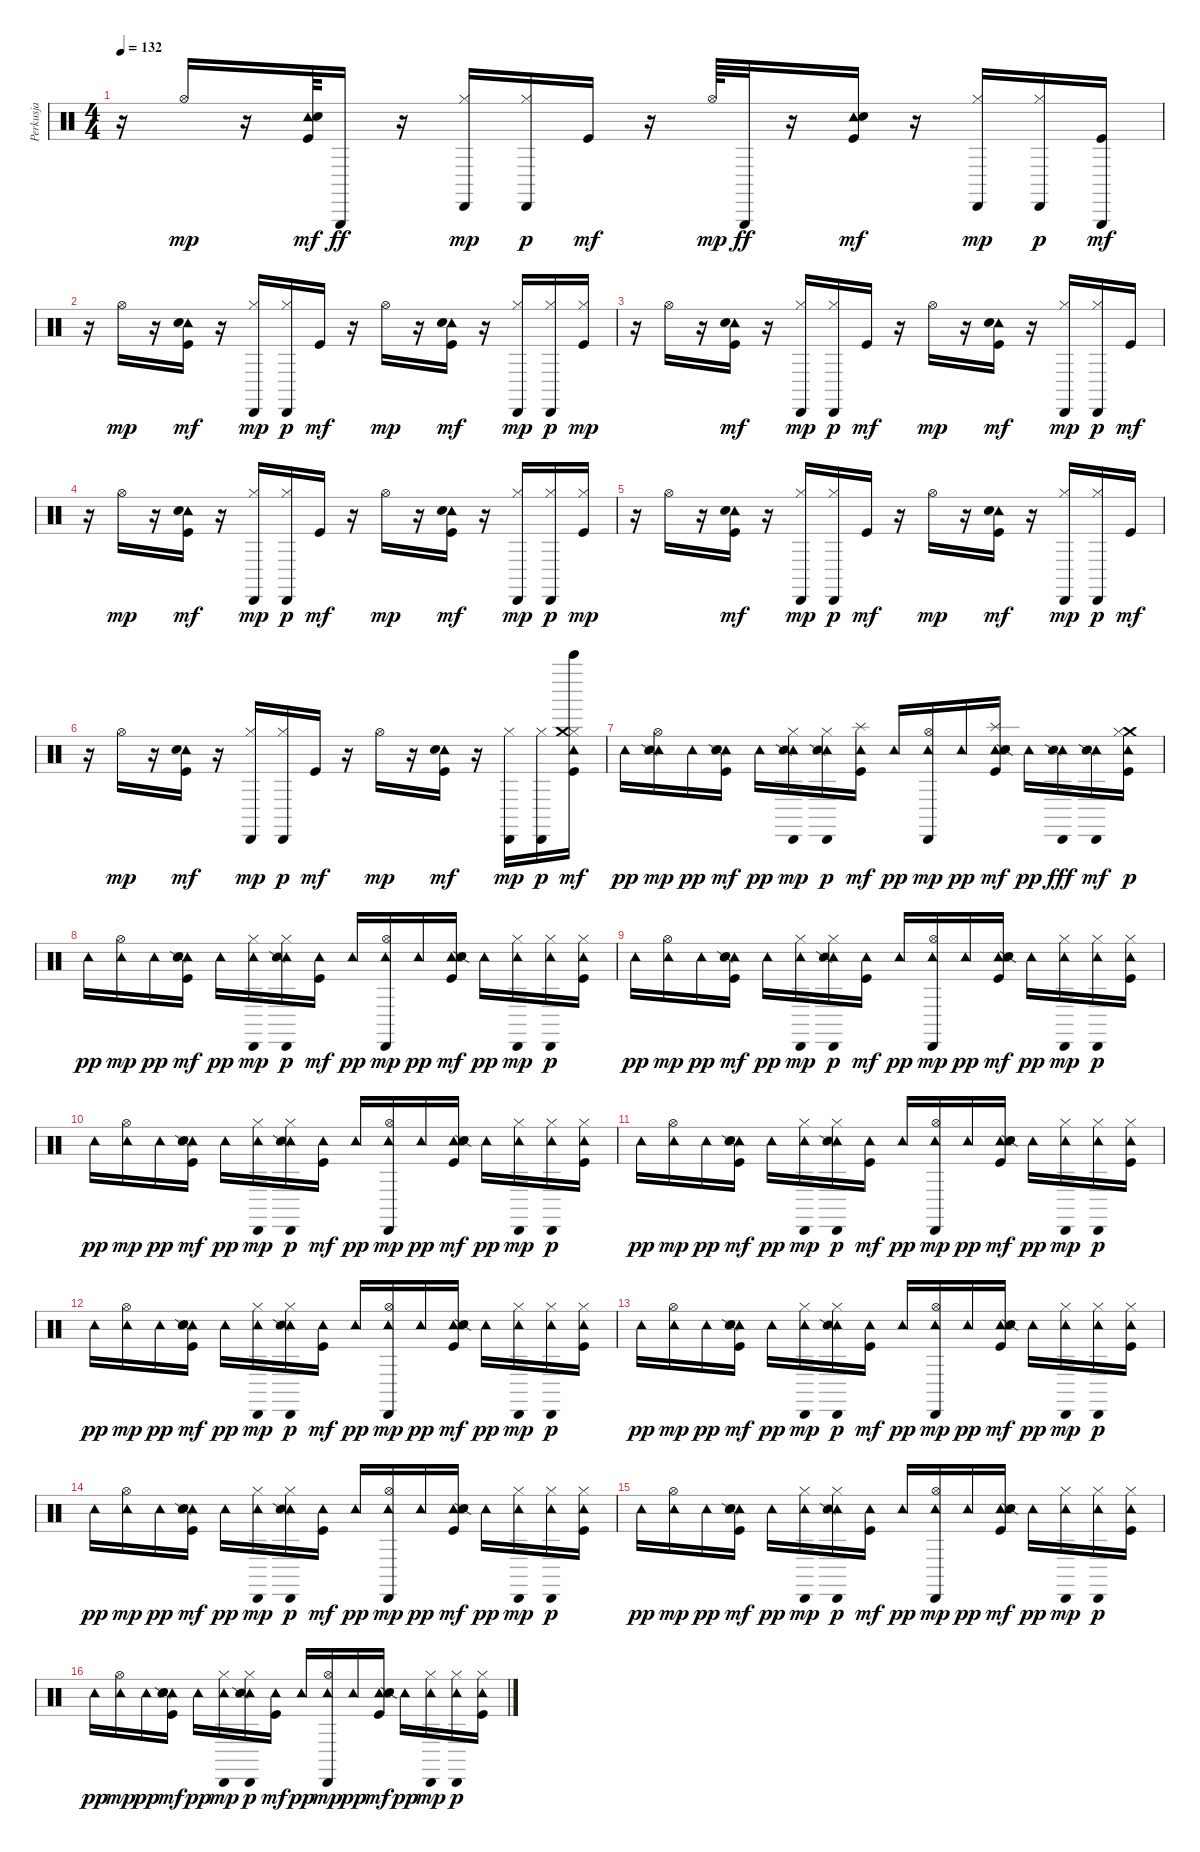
\track ("Perkusja" "Perkusja") {instrument percussion}
\staff {score}
\articulation defaults
\ts (4 4)
\tempo 132
\clef neutral
\ks c
r.16{dy mp} "Hi-Hat (open)".16 r.16 ("Tambourine (hit)" "Snare (hit) 2" "Kick (hit)").64{dy mf} "Triangle (hit)".16{dy ff} r.16 ("Cabasa (hit)" "Hi-Hat (closed)").16{dy mp} ("Cabasa (hit)" "Hi-Hat (closed)").16{dy p} "Kick (hit)".16{dy mf} r.16 "Hi-Hat (open)".64{dy mp} "Triangle (hit)".32{dy ff} r.16 ("Tambourine (hit)" "Snare (hit) 2" "Kick (hit)").16{dy mf} r.16 ("Cabasa (hit)" "Hi-Hat (closed)").16{dy mp} ("Cabasa (hit)" "Hi-Hat (closed)").16{dy p} ("Triangle (hit)" "Kick (hit)").16{dy mf} |
r.16 "Hi-Hat (open)".16{dy mp} r.16 ("Tambourine (hit)" "Snare (hit) 2" "Kick (hit)").16{dy mf} r.16 ("Cabasa (hit)" "Hi-Hat (closed)").16{dy mp} ("Cabasa (hit)" "Hi-Hat (closed)").16{dy p} "Kick (hit)".16{dy mf} r.16 "Hi-Hat (open)".16{dy mp} r.16 ("Tambourine (hit)" "Snare (hit) 2" "Kick (hit)").16{dy mf} r.16 ("Cabasa (hit)" "Hi-Hat (closed)").16{dy mp} ("Cabasa (hit)" "Hi-Hat (closed)").16{dy p} ("Kick (hit)" "Hi-Hat (closed)").16{dy mp} |
r.16 "Hi-Hat (open)".16 r.16 ("Tambourine (hit)" "Snare (hit) 2" "Kick (hit)").16{dy mf} r.16 ("Cabasa (hit)" "Hi-Hat (closed)").16{dy mp} ("Cabasa (hit)" "Hi-Hat (closed)").16{dy p} "Kick (hit)".16{dy mf} r.16 "Hi-Hat (open)".16{dy mp} r.16 ("Tambourine (hit)" "Snare (hit) 2" "Kick (hit)").16{dy mf} r.16 ("Cabasa (hit)" "Hi-Hat (closed)").16{dy mp} ("Cabasa (hit)" "Hi-Hat (closed)").16{dy p} "Kick (hit)".16{dy mf} |
r.16 "Hi-Hat (open)".16{dy mp} r.16 ("Tambourine (hit)" "Snare (hit) 2" "Kick (hit)").16{dy mf} r.16 ("Cabasa (hit)" "Hi-Hat (closed)").16{dy mp} ("Cabasa (hit)" "Hi-Hat (closed)").16{dy p} "Kick (hit)".16{dy mf} r.16 "Hi-Hat (open)".16{dy mp} r.16 ("Tambourine (hit)" "Snare (hit) 2" "Kick (hit)").16{dy mf} r.16 ("Cabasa (hit)" "Hi-Hat (closed)").16{dy mp} ("Cabasa (hit)" "Hi-Hat (closed)").16{dy p} ("Kick (hit)" "Hi-Hat (closed)").16{dy mp} |
r.16 "Hi-Hat (open)".16 r.16 ("Tambourine (hit)" "Snare (hit) 2" "Kick (hit)").16{dy mf} r.16 ("Cabasa (hit)" "Hi-Hat (closed)").16{dy mp} ("Cabasa (hit)" "Hi-Hat (closed)").16{dy p} "Kick (hit)".16{dy mf} r.16 "Hi-Hat (open)".16{dy mp} r.16 ("Tambourine (hit)" "Snare (hit) 2" "Kick (hit)").16{dy mf} r.16 ("Cabasa (hit)" "Hi-Hat (closed)").16{dy mp} ("Cabasa (hit)" "Hi-Hat (closed)").16{dy p} "Kick (hit)".16{dy mf} |
r.16 "Hi-Hat (open)".16{dy mp} r.16 ("Tambourine (hit)" "Snare (hit) 2" "Kick (hit)").16{dy mf} r.16 ("Cabasa (hit)" "Hi-Hat (closed)").16{dy mp} ("Cabasa (hit)" "Hi-Hat (closed)").16{dy p} "Kick (hit)".16{dy mf} r.16 "Hi-Hat (open)".16{dy mp} r.16 ("Tambourine (hit)" "Snare (hit) 2" "Kick (hit)").16{dy mf} r.16 ("Cabasa (hit)" "Hi-Hat (closed)").16{dy mp} ("Cabasa (hit)" "Hi-Hat (closed)").16{dy p} ("Tambourine (hit)" "Kick (hit)" "Hi-Hat (closed)" "Crash medium (hit)" "Bell Tree (hit)").16{dy mf} |
"Tambourine (hit)".16{dy pp} ("Tambourine (hit)" "Snare (side stick) 2" "Hi-Hat (open)").16{dy mp} "Tambourine (hit)".16{dy pp} ("Tambourine (hit)" "Snare (hit) 2" "Snare (side stick) 2" "Kick (hit)").16{dy mf} "Tambourine (hit)".16{dy pp} ("Tambourine (hit)" "Snare (side stick) 2" "Cabasa (hit)" "Hi-Hat (closed)").16{dy mp} ("Tambourine (hit)" "Snare (side stick) 2" "Cabasa (hit)" "Hi-Hat (closed)").16{dy p} ("Tambourine (hit)" "Kick (hit)" "Splash (hit)").16{dy mf} "Tambourine (hit)".16{dy pp} ("Tambourine (hit)" "Cabasa (hit)" "Hi-Hat (open)").16{dy mp} "Tambourine (hit)".16{dy pp} ("Tambourine (hit)" "Snare (hit) 2" "Snare (side stick) 2" "Kick (hit)" "Splash (hit)").16{dy mf} "Tambourine (hit)".16{dy pp} ("Tambourine (hit)" "Snare (side stick) 2" "Cabasa (hit)").16{dy fff} ("Tambourine (hit)" "Snare (side stick) 2" "Cabasa (hit)").16{dy mf} ("Crash medium (hit)" "Tambourine (hit)" "Kick (hit)" "Hi-Hat (closed)").16{dy p} |
"Tambourine (hit)".16{dy pp} ("Tambourine (hit)" "Hi-Hat (open)").16{dy mp} "Tambourine (hit)".16{dy pp} ("Tambourine (hit)" "Snare (hit) 2" "Snare (side stick) 2" "Kick (hit)").16{dy mf} "Tambourine (hit)".16{dy pp} ("Tambourine (hit)" "Cabasa (hit)" "Hi-Hat (closed)").16{dy mp} ("Tambourine (hit)" "Snare (side stick) 2" "Cabasa (hit)" "Hi-Hat (closed)").16{dy p} ("Tambourine (hit)" "Kick (hit)").16{dy mf} "Tambourine (hit)".16{dy pp} ("Tambourine (hit)" "Cabasa (hit)" "Hi-Hat (open)").16{dy mp} "Tambourine (hit)".16{dy pp} ("Tambourine (hit)" "Snare (hit) 2" "Snare (side stick) 2" "Kick (hit)").16{dy mf} "Tambourine (hit)".16{dy pp} ("Tambourine (hit)" "Cabasa (hit)" "Hi-Hat (closed)").16{dy mp} ("Tambourine (hit)" "Cabasa (hit)" "Hi-Hat (closed)").16{dy p} ("Tambourine (hit)" "Kick (hit)" "Hi-Hat (closed)").16 |
"Tambourine (hit)".16{dy pp} ("Tambourine (hit)" "Hi-Hat (open)").16{dy mp} "Tambourine (hit)".16{dy pp} ("Tambourine (hit)" "Snare (hit) 2" "Snare (side stick) 2" "Kick (hit)").16{dy mf} "Tambourine (hit)".16{dy pp} ("Tambourine (hit)" "Cabasa (hit)" "Hi-Hat (closed)").16{dy mp} ("Tambourine (hit)" "Snare (side stick) 2" "Cabasa (hit)" "Hi-Hat (closed)").16{dy p} ("Tambourine (hit)" "Kick (hit)").16{dy mf} "Tambourine (hit)".16{dy pp} ("Tambourine (hit)" "Cabasa (hit)" "Hi-Hat (open)").16{dy mp} "Tambourine (hit)".16{dy pp} ("Tambourine (hit)" "Snare (hit) 2" "Snare (side stick) 2" "Kick (hit)").16{dy mf} "Tambourine (hit)".16{dy pp} ("Tambourine (hit)" "Cabasa (hit)" "Hi-Hat (closed)").16{dy mp} ("Tambourine (hit)" "Cabasa (hit)" "Hi-Hat (closed)").16{dy p} ("Tambourine (hit)" "Kick (hit)" "Hi-Hat (closed)").16 |
"Tambourine (hit)".16{dy pp} ("Tambourine (hit)" "Hi-Hat (open)").16{dy mp} "Tambourine (hit)".16{dy pp} ("Tambourine (hit)" "Snare (hit) 2" "Snare (side stick) 2" "Kick (hit)").16{dy mf} "Tambourine (hit)".16{dy pp} ("Tambourine (hit)" "Cabasa (hit)" "Hi-Hat (closed)").16{dy mp} ("Tambourine (hit)" "Snare (side stick) 2" "Cabasa (hit)" "Hi-Hat (closed)").16{dy p} ("Tambourine (hit)" "Kick (hit)").16{dy mf} "Tambourine (hit)".16{dy pp} ("Tambourine (hit)" "Cabasa (hit)" "Hi-Hat (open)").16{dy mp} "Tambourine (hit)".16{dy pp} ("Tambourine (hit)" "Snare (hit) 2" "Snare (side stick) 2" "Kick (hit)").16{dy mf} "Tambourine (hit)".16{dy pp} ("Tambourine (hit)" "Cabasa (hit)" "Hi-Hat (closed)").16{dy mp} ("Tambourine (hit)" "Cabasa (hit)" "Hi-Hat (closed)").16{dy p} ("Tambourine (hit)" "Kick (hit)" "Hi-Hat (closed)").16 |
"Tambourine (hit)".16{dy pp} ("Tambourine (hit)" "Hi-Hat (open)").16{dy mp} "Tambourine (hit)".16{dy pp} ("Tambourine (hit)" "Snare (hit) 2" "Snare (side stick) 2" "Kick (hit)").16{dy mf} "Tambourine (hit)".16{dy pp} ("Tambourine (hit)" "Cabasa (hit)" "Hi-Hat (closed)").16{dy mp} ("Tambourine (hit)" "Snare (side stick) 2" "Cabasa (hit)" "Hi-Hat (closed)").16{dy p} ("Tambourine (hit)" "Kick (hit)").16{dy mf} "Tambourine (hit)".16{dy pp} ("Tambourine (hit)" "Cabasa (hit)" "Hi-Hat (open)").16{dy mp} "Tambourine (hit)".16{dy pp} ("Tambourine (hit)" "Snare (hit) 2" "Snare (side stick) 2" "Kick (hit)").16{dy mf} "Tambourine (hit)".16{dy pp} ("Tambourine (hit)" "Cabasa (hit)" "Hi-Hat (closed)").16{dy mp} ("Tambourine (hit)" "Cabasa (hit)" "Hi-Hat (closed)").16{dy p} ("Tambourine (hit)" "Kick (hit)" "Hi-Hat (closed)").16 |
"Tambourine (hit)".16{dy pp} ("Tambourine (hit)" "Hi-Hat (open)").16{dy mp} "Tambourine (hit)".16{dy pp} ("Tambourine (hit)" "Snare (hit) 2" "Snare (side stick) 2" "Kick (hit)").16{dy mf} "Tambourine (hit)".16{dy pp} ("Tambourine (hit)" "Cabasa (hit)" "Hi-Hat (closed)").16{dy mp} ("Tambourine (hit)" "Snare (side stick) 2" "Cabasa (hit)" "Hi-Hat (closed)").16{dy p} ("Tambourine (hit)" "Kick (hit)").16{dy mf} "Tambourine (hit)".16{dy pp} ("Tambourine (hit)" "Cabasa (hit)" "Hi-Hat (open)").16{dy mp} "Tambourine (hit)".16{dy pp} ("Tambourine (hit)" "Snare (hit) 2" "Snare (side stick) 2" "Kick (hit)").16{dy mf} "Tambourine (hit)".16{dy pp} ("Tambourine (hit)" "Cabasa (hit)" "Hi-Hat (closed)").16{dy mp} ("Tambourine (hit)" "Cabasa (hit)" "Hi-Hat (closed)").16{dy p} ("Tambourine (hit)" "Kick (hit)" "Hi-Hat (closed)").16 |
"Tambourine (hit)".16{dy pp} ("Tambourine (hit)" "Hi-Hat (open)").16{dy mp} "Tambourine (hit)".16{dy pp} ("Tambourine (hit)" "Snare (hit) 2" "Snare (side stick) 2" "Kick (hit)").16{dy mf} "Tambourine (hit)".16{dy pp} ("Tambourine (hit)" "Cabasa (hit)" "Hi-Hat (closed)").16{dy mp} ("Tambourine (hit)" "Snare (side stick) 2" "Cabasa (hit)" "Hi-Hat (closed)").16{dy p} ("Tambourine (hit)" "Kick (hit)").16{dy mf} "Tambourine (hit)".16{dy pp} ("Tambourine (hit)" "Cabasa (hit)" "Hi-Hat (open)").16{dy mp} "Tambourine (hit)".16{dy pp} ("Tambourine (hit)" "Snare (hit) 2" "Snare (side stick) 2" "Kick (hit)").16{dy mf} "Tambourine (hit)".16{dy pp} ("Tambourine (hit)" "Cabasa (hit)" "Hi-Hat (closed)").16{dy mp} ("Tambourine (hit)" "Cabasa (hit)" "Hi-Hat (closed)").16{dy p} ("Tambourine (hit)" "Kick (hit)" "Hi-Hat (closed)").16 |
"Tambourine (hit)".16{dy pp} ("Tambourine (hit)" "Hi-Hat (open)").16{dy mp} "Tambourine (hit)".16{dy pp} ("Tambourine (hit)" "Snare (hit) 2" "Snare (side stick) 2" "Kick (hit)").16{dy mf} "Tambourine (hit)".16{dy pp} ("Tambourine (hit)" "Cabasa (hit)" "Hi-Hat (closed)").16{dy mp} ("Tambourine (hit)" "Snare (side stick) 2" "Cabasa (hit)" "Hi-Hat (closed)").16{dy p} ("Tambourine (hit)" "Kick (hit)").16{dy mf} "Tambourine (hit)".16{dy pp} ("Tambourine (hit)" "Cabasa (hit)" "Hi-Hat (open)").16{dy mp} "Tambourine (hit)".16{dy pp} ("Tambourine (hit)" "Snare (hit) 2" "Snare (side stick) 2" "Kick (hit)").16{dy mf} "Tambourine (hit)".16{dy pp} ("Tambourine (hit)" "Cabasa (hit)" "Hi-Hat (closed)").16{dy mp} ("Tambourine (hit)" "Cabasa (hit)" "Hi-Hat (closed)").16{dy p} ("Tambourine (hit)" "Kick (hit)" "Hi-Hat (closed)").16 |
"Tambourine (hit)".16{dy pp} ("Tambourine (hit)" "Hi-Hat (open)").16{dy mp} "Tambourine (hit)".16{dy pp} ("Tambourine (hit)" "Snare (hit) 2" "Snare (side stick) 2" "Kick (hit)").16{dy mf} "Tambourine (hit)".16{dy pp} ("Tambourine (hit)" "Cabasa (hit)" "Hi-Hat (closed)").16{dy mp} ("Tambourine (hit)" "Snare (side stick) 2" "Cabasa (hit)" "Hi-Hat (closed)").16{dy p} ("Tambourine (hit)" "Kick (hit)").16{dy mf} "Tambourine (hit)".16{dy pp} ("Tambourine (hit)" "Cabasa (hit)" "Hi-Hat (open)").16{dy mp} "Tambourine (hit)".16{dy pp} ("Tambourine (hit)" "Snare (hit) 2" "Snare (side stick) 2" "Kick (hit)").16{dy mf} "Tambourine (hit)".16{dy pp} ("Tambourine (hit)" "Cabasa (hit)" "Hi-Hat (closed)").16{dy mp} ("Tambourine (hit)" "Cabasa (hit)" "Hi-Hat (closed)").16{dy p} ("Tambourine (hit)" "Kick (hit)" "Hi-Hat (closed)").16 |
"Tambourine (hit)".16{dy pp} ("Tambourine (hit)" "Hi-Hat (open)").16{dy mp} "Tambourine (hit)".16{dy pp} ("Tambourine (hit)" "Snare (hit) 2" "Snare (side stick) 2" "Kick (hit)").16{dy mf} "Tambourine (hit)".16{dy pp} ("Tambourine (hit)" "Cabasa (hit)" "Hi-Hat (closed)").16{dy mp} ("Tambourine (hit)" "Snare (side stick) 2" "Cabasa (hit)" "Hi-Hat (closed)").16{dy p} ("Tambourine (hit)" "Kick (hit)").16{dy mf} "Tambourine (hit)".16{dy pp} ("Tambourine (hit)" "Cabasa (hit)" "Hi-Hat (open)").16{dy mp} "Tambourine (hit)".16{dy pp} ("Tambourine (hit)" "Snare (hit) 2" "Snare (side stick) 2" "Kick (hit)").16{dy mf} "Tambourine (hit)".16{dy pp} ("Tambourine (hit)" "Cabasa (hit)" "Hi-Hat (closed)").16{dy mp} ("Tambourine (hit)" "Cabasa (hit)" "Hi-Hat (closed)").16{dy p} ("Tambourine (hit)" "Kick (hit)" "Hi-Hat (closed)").16
